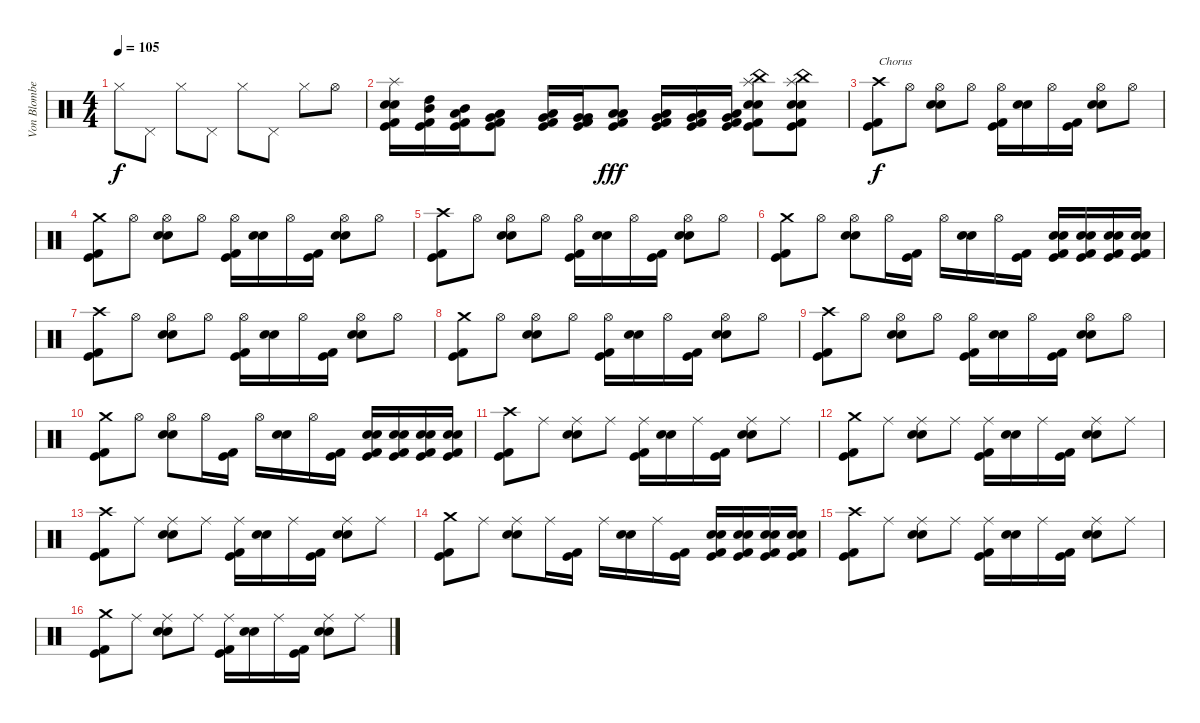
\track ("Von Blomberg" "Von Blombe") {instrument percussion}
\staff {score}
\articulation defaults
\ts (4 4)
\tempo 105
\clef neutral
\ks c "Hi-Hat (closed)".8{dy f} "Pedal Hi-Hat (hit)".8 "Hi-Hat (closed)".8 "Pedal Hi-Hat (hit)".8 "Hi-Hat (closed)".8 "Pedal Hi-Hat (hit)".8 "Hi-Hat (closed)".8 "Hi-Hat (open)".8
|
("Splash (hit)" "Electric Snare (hit)" "Snare (hit) 2" "Kick (hit)" "Kick (hit) 2").16 ("High Tom (hit)" "Mid Tom (hit)" "Kick (hit)" "Kick (hit) 2").16 ("Mid Tom (hit)" "Low Tom (hit)" "Kick (hit)" "Kick (hit) 2").16 ("Low Tom (hit)" "Very Low Tom (hit)" "Kick (hit)" "Kick (hit) 2").8 ("Low Tom (hit)" "Very Low Tom (hit)" "Kick (hit)" "Kick (hit) 2").16 ("Very Low Tom (hit)" "Very Low Tom (hit)" "Kick (hit)" "Kick (hit) 2").16 ("Low Floor Tom (hit)" "Low Floor Tom (hit)" "Kick (hit)" "Kick (hit) 2").8{dy fff} ("Very Low Tom (hit)" "Low Floor Tom (hit)" "Kick (hit)" "Kick (hit) 2").16 ("Very Low Tom (hit)" "Low Floor Tom (hit)" "Kick (hit)" "Kick (hit) 2").16 ("Very Low Tom (hit)" "Low Floor Tom (hit)" "Kick (hit)" "Kick (hit) 2").16 ("Splash (hit)" "China (hit)" "Electric Snare (hit)" "Snare (hit) 2" "Kick (hit)" "Kick (hit) 2").8 ("Splash (hit)" "China (hit)" "Electric Snare (hit)" "Snare (hit) 2" "Kick (hit)" "Kick (hit) 2").8 |
("Crash high (hit)" "Kick (hit)" "Kick (hit) 2").8{txt "Chorus" dy f} "Hi-Hat (open)".8 ("Hi-Hat (open)" "Electric Snare (hit)" "Snare (hit) 2").8 "Hi-Hat (open)".8 ("Hi-Hat (open)" "Kick (hit)" "Kick (hit) 2").16 ("Electric Snare (hit)" "Snare (hit) 2").16 "Hi-Hat (open)".16 ("Kick (hit) 2" "Kick (hit)").16 ("Hi-Hat (open)" "Snare (hit) 2" "Electric Snare (hit)").8 "Hi-Hat (open)".8 |
("Crash medium (hit)" "Kick (hit)" "Kick (hit) 2").8 "Hi-Hat (open)".8 ("Hi-Hat (open)" "Electric Snare (hit)" "Snare (hit) 2").8 "Hi-Hat (open)".8 ("Hi-Hat (open)" "Kick (hit)" "Kick (hit) 2").16 ("Electric Snare (hit)" "Snare (hit) 2").16 "Hi-Hat (open)".16 ("Kick (hit) 2" "Kick (hit)").16 ("Hi-Hat (open)" "Snare (hit) 2" "Electric Snare (hit)").8 "Hi-Hat (open)".8 |
("Crash high (hit)" "Kick (hit)" "Kick (hit) 2").8 "Hi-Hat (open)".8 ("Hi-Hat (open)" "Electric Snare (hit)" "Snare (hit) 2").8 "Hi-Hat (open)".8 ("Hi-Hat (open)" "Kick (hit)" "Kick (hit) 2").16 ("Electric Snare (hit)" "Snare (hit) 2").16 "Hi-Hat (open)".16 ("Kick (hit) 2" "Kick (hit)").16 ("Hi-Hat (open)" "Snare (hit) 2" "Electric Snare (hit)").8 "Hi-Hat (open)".8 |
("Crash medium (hit)" "Kick (hit)" "Kick (hit) 2").8 "Hi-Hat (open)".8 ("Hi-Hat (open)" "Electric Snare (hit)" "Snare (hit) 2").8 "Hi-Hat (open)".16 ("Kick (hit)" "Kick (hit) 2").16 "Hi-Hat (open)".16 ("Snare (hit) 2" "Electric Snare (hit)").16 "Hi-Hat (open)".16 ("Kick (hit)" "Kick (hit) 2").16 ("Electric Snare (hit)" "Snare (hit) 2" "Kick (hit)" "Kick (hit) 2").16 ("Electric Snare (hit)" "Snare (hit) 2" "Kick (hit)" "Kick (hit) 2").16 ("Electric Snare (hit)" "Snare (hit) 2" "Kick (hit)" "Kick (hit) 2").16 ("Electric Snare (hit)" "Snare (hit) 2" "Kick (hit)" "Kick (hit) 2").16 |
("Crash high (hit)" "Kick (hit)" "Kick (hit) 2").8 "Hi-Hat (open)".8 ("Hi-Hat (open)" "Electric Snare (hit)" "Snare (hit) 2").8 "Hi-Hat (open)".8 ("Hi-Hat (open)" "Kick (hit)" "Kick (hit) 2").16 ("Electric Snare (hit)" "Snare (hit) 2").16 "Hi-Hat (open)".16 ("Kick (hit) 2" "Kick (hit)").16 ("Hi-Hat (open)" "Snare (hit) 2" "Electric Snare (hit)").8 "Hi-Hat (open)".8 |
("Crash medium (hit)" "Kick (hit)" "Kick (hit) 2").8 "Hi-Hat (open)".8 ("Hi-Hat (open)" "Electric Snare (hit)" "Snare (hit) 2").8 "Hi-Hat (open)".8 ("Hi-Hat (open)" "Kick (hit)" "Kick (hit) 2").16 ("Electric Snare (hit)" "Snare (hit) 2").16 "Hi-Hat (open)".16 ("Kick (hit) 2" "Kick (hit)").16 ("Hi-Hat (open)" "Snare (hit) 2" "Electric Snare (hit)").8 "Hi-Hat (open)".8 |
("Crash high (hit)" "Kick (hit)" "Kick (hit) 2").8 "Hi-Hat (open)".8 ("Hi-Hat (open)" "Electric Snare (hit)" "Snare (hit) 2").8 "Hi-Hat (open)".8 ("Hi-Hat (open)" "Kick (hit)" "Kick (hit) 2").16 ("Electric Snare (hit)" "Snare (hit) 2").16 "Hi-Hat (open)".16 ("Kick (hit) 2" "Kick (hit)").16 ("Hi-Hat (open)" "Snare (hit) 2" "Electric Snare (hit)").8 "Hi-Hat (open)".8 |
("Crash medium (hit)" "Kick (hit)" "Kick (hit) 2").8 "Hi-Hat (open)".8 ("Hi-Hat (open)" "Electric Snare (hit)" "Snare (hit) 2").8 "Hi-Hat (open)".16 ("Kick (hit)" "Kick (hit) 2").16 "Hi-Hat (open)".16 ("Snare (hit) 2" "Electric Snare (hit)").16 "Hi-Hat (open)".16 ("Kick (hit)" "Kick (hit) 2").16 ("Electric Snare (hit)" "Snare (hit) 2" "Kick (hit)" "Kick (hit) 2").16 ("Electric Snare (hit)" "Snare (hit) 2" "Kick (hit)" "Kick (hit) 2").16 ("Electric Snare (hit)" "Snare (hit) 2" "Kick (hit)" "Kick (hit) 2").16 ("Electric Snare (hit)" "Snare (hit) 2" "Kick (hit)" "Kick (hit) 2").16 |
("Crash high (hit)" "Kick (hit)" "Kick (hit) 2").8 "Ride (middle)".8 ("Ride (middle)" "Electric Snare (hit)" "Snare (hit) 2").8 "Ride (middle)".8 ("Ride (middle)" "Kick (hit)" "Kick (hit) 2").16 ("Electric Snare (hit)" "Snare (hit) 2").16 "Ride (middle)".16 ("Kick (hit) 2" "Kick (hit)").16 ("Ride (middle)" "Snare (hit) 2" "Electric Snare (hit)").8 "Ride (middle)".8 |
("Crash medium (hit)" "Kick (hit)" "Kick (hit) 2").8 "Ride (middle)".8 ("Ride (middle)" "Electric Snare (hit)" "Snare (hit) 2").8 "Ride (middle)".8 ("Ride (middle)" "Kick (hit)" "Kick (hit) 2").16 ("Electric Snare (hit)" "Snare (hit) 2").16 "Ride (middle)".16 ("Kick (hit) 2" "Kick (hit)").16 ("Ride (middle)" "Snare (hit) 2" "Electric Snare (hit)").8 "Ride (middle)".8 |
("Crash high (hit)" "Kick (hit)" "Kick (hit) 2").8 "Ride (middle)".8 ("Ride (middle)" "Electric Snare (hit)" "Snare (hit) 2").8 "Ride (middle)".8 ("Ride (middle)" "Kick (hit)" "Kick (hit) 2").16 ("Electric Snare (hit)" "Snare (hit) 2").16 "Ride (middle)".16 ("Kick (hit) 2" "Kick (hit)").16 ("Ride (middle)" "Snare (hit) 2" "Electric Snare (hit)").8 "Ride (middle)".8 |
("Crash medium (hit)" "Kick (hit)" "Kick (hit) 2").8 "Ride (middle)".8 ("Ride (middle)" "Electric Snare (hit)" "Snare (hit) 2").8 "Ride (middle)".16 ("Kick (hit)" "Kick (hit) 2").16 "Ride (middle)".16 ("Snare (hit) 2" "Electric Snare (hit)").16 "Ride (middle)".16 ("Kick (hit)" "Kick (hit) 2").16 ("Electric Snare (hit)" "Snare (hit) 2" "Kick (hit)" "Kick (hit) 2").16 ("Electric Snare (hit)" "Snare (hit) 2" "Kick (hit)" "Kick (hit) 2").16 ("Electric Snare (hit)" "Snare (hit) 2" "Kick (hit)" "Kick (hit) 2").16 ("Electric Snare (hit)" "Snare (hit) 2" "Kick (hit)" "Kick (hit) 2").16 |
("Crash high (hit)" "Kick (hit)" "Kick (hit) 2").8 "Ride (middle)".8 ("Ride (middle)" "Electric Snare (hit)" "Snare (hit) 2").8 "Ride (middle)".8 ("Ride (middle)" "Kick (hit)" "Kick (hit) 2").16 ("Electric Snare (hit)" "Snare (hit) 2").16 "Ride (middle)".16 ("Kick (hit) 2" "Kick (hit)").16 ("Ride (middle)" "Snare (hit) 2" "Electric Snare (hit)").8 "Ride (middle)".8 |
("Crash medium (hit)" "Kick (hit)" "Kick (hit) 2").8 "Ride (middle)".8 ("Ride (middle)" "Electric Snare (hit)" "Snare (hit) 2").8 "Ride (middle)".8 ("Ride (middle)" "Kick (hit)" "Kick (hit) 2").16 ("Electric Snare (hit)" "Snare (hit) 2").16 "Ride (middle)".16 ("Kick (hit) 2" "Kick (hit)").16 ("Ride (middle)" "Snare (hit) 2" "Electric Snare (hit)").8 "Ride (middle)".8
